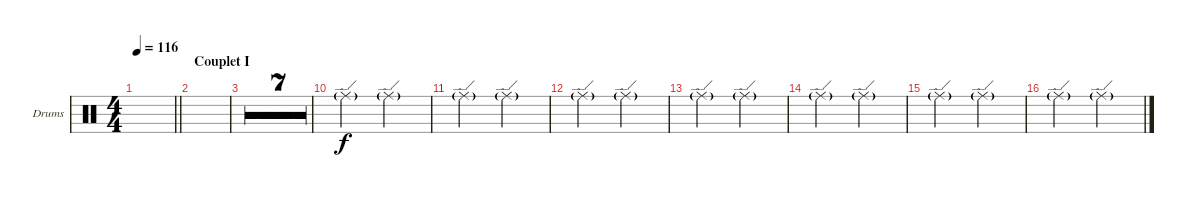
\bracketExtendMode groupsimilarinstruments
\firstSystemTrackNameOrientation horizontal
\otherSystemsTrackNameOrientation horizontal
\track ("Nick Mason" "Drums") {multiBarRest instrument percussion}
\staff {score}
\articulation defaults
\ts (4 4)
\beaming (8 2 2 2 2)
\tempo 116
\clef neutral
\barLineRight lightlight
\ks c
|
\section ("" "Couplet I")
|
|
|
|
|
|
|
\barLineRight lightlight
|
"Ride (edge)"{g}.2 "Ride (edge)"{g}.2 |
"Ride (edge)"{g}.2 "Ride (edge)"{g}.2 |
"Ride (edge)"{g}.2 "Ride (edge)"{g}.2 |
"Ride (edge)"{g}.2 "Ride (edge)"{g}.2 |
"Ride (edge)"{g}.2 "Ride (edge)"{g}.2 |
"Ride (edge)"{g}.2 "Ride (edge)"{g}.2 |
"Ride (edge)"{g}.2 "Ride (edge)"{g}.2
